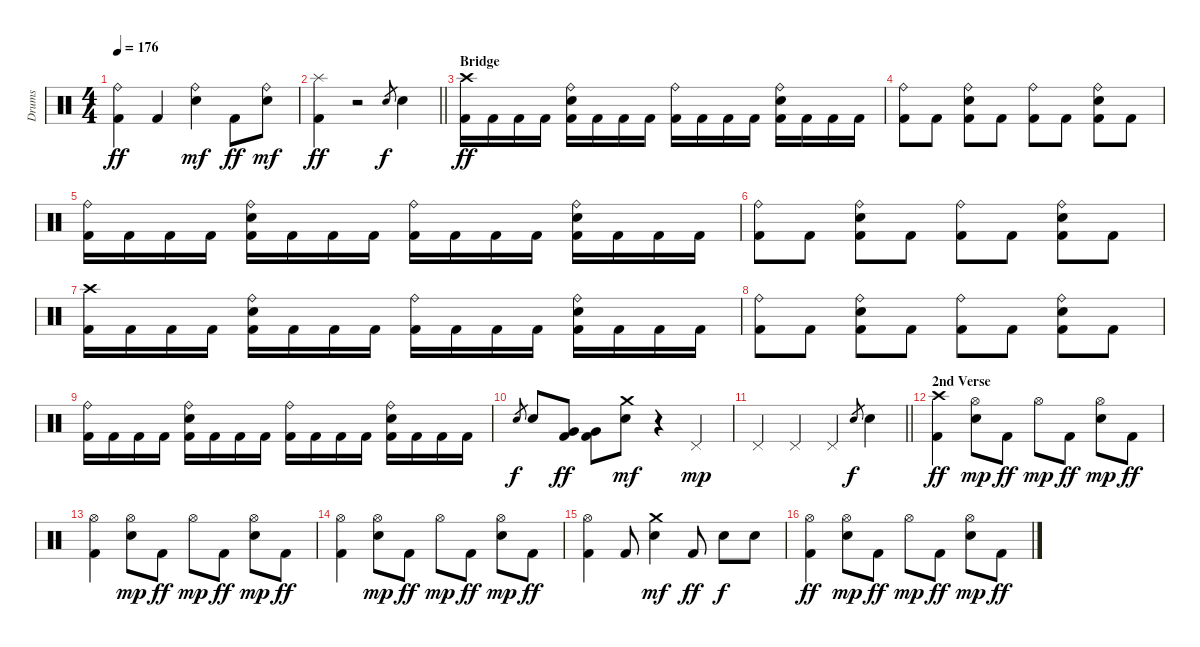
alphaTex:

\track ("Drums" "Drums") {instrument percussion}
\staff {score}
\articulation defaults
\ts (4 4)
\tempo 176
\clef neutral
\ks c
("Ride (bell)" "Kick (hit) 2").4{dy ff} "Kick (hit) 2".4 ("Ride (bell)" "Electric Snare (hit)").4{dy mf} "Kick (hit) 2".8{dy ff} ("Ride (bell)" "Electric Snare (hit)").8{dy mf} |
\barLineRight lightlight
("Splash (hit)" "Kick (hit) 2").4{dy ff} r.2 "Electric Snare (hit)".8{gr dy f} "Electric Snare (hit)".4 |
\section ("" "Bridge")
("Crash high (hit)" "Kick (hit) 2").16{dy ff} "Kick (hit) 2".16 "Kick (hit) 2".16 "Kick (hit) 2".16 ("Ride (bell)" "Electric Snare (hit)" "Kick (hit) 2").16 "Kick (hit) 2".16 "Kick (hit) 2".16 "Kick (hit) 2".16 ("Ride (bell)" "Kick (hit) 2").16 "Kick (hit) 2".16 "Kick (hit) 2".16 "Kick (hit) 2".16 ("Ride (bell)" "Electric Snare (hit)" "Kick (hit) 2").16 "Kick (hit) 2".16 "Kick (hit) 2".16 "Kick (hit) 2".16 |
("Ride (bell)" "Kick (hit) 2").8 "Kick (hit) 2".8 ("Ride (bell)" "Electric Snare (hit)" "Kick (hit) 2").8 "Kick (hit) 2".8 ("Ride (bell)" "Kick (hit) 2").8 "Kick (hit) 2".8 ("Ride (bell)" "Electric Snare (hit)" "Kick (hit) 2").8 "Kick (hit) 2".8 |
("Ride (bell)" "Kick (hit) 2").16 "Kick (hit) 2".16 "Kick (hit) 2".16 "Kick (hit) 2".16 ("Ride (bell)" "Electric Snare (hit)" "Kick (hit) 2").16 "Kick (hit) 2".16 "Kick (hit) 2".16 "Kick (hit) 2".16 ("Ride (bell)" "Kick (hit) 2").16 "Kick (hit) 2".16 "Kick (hit) 2".16 "Kick (hit) 2".16 ("Ride (bell)" "Electric Snare (hit)" "Kick (hit) 2").16 "Kick (hit) 2".16 "Kick (hit) 2".16 "Kick (hit) 2".16 |
("Ride (bell)" "Kick (hit) 2").8 "Kick (hit) 2".8 ("Ride (bell)" "Electric Snare (hit)" "Kick (hit) 2").8 "Kick (hit) 2".8 ("Ride (bell)" "Kick (hit) 2").8 "Kick (hit) 2".8 ("Ride (bell)" "Electric Snare (hit)" "Kick (hit) 2").8 "Kick (hit) 2".8 |
("Crash high (hit)" "Kick (hit) 2").16 "Kick (hit) 2".16 "Kick (hit) 2".16 "Kick (hit) 2".16 ("Ride (bell)" "Electric Snare (hit)" "Kick (hit) 2").16 "Kick (hit) 2".16 "Kick (hit) 2".16 "Kick (hit) 2".16 ("Ride (bell)" "Kick (hit) 2").16 "Kick (hit) 2".16 "Kick (hit) 2".16 "Kick (hit) 2".16 ("Ride (bell)" "Electric Snare (hit)" "Kick (hit) 2").16 "Kick (hit) 2".16 "Kick (hit) 2".16 "Kick (hit) 2".16 |
("Ride (bell)" "Kick (hit) 2").8 "Kick (hit) 2".8 ("Ride (bell)" "Electric Snare (hit)" "Kick (hit) 2").8 "Kick (hit) 2".8 ("Ride (bell)" "Kick (hit) 2").8 "Kick (hit) 2".8 ("Ride (bell)" "Electric Snare (hit)" "Kick (hit) 2").8 "Kick (hit) 2".8 |
("Ride (bell)" "Kick (hit) 2").16 "Kick (hit) 2".16 "Kick (hit) 2".16 "Kick (hit) 2".16 ("Ride (bell)" "Electric Snare (hit)" "Kick (hit) 2").16 "Kick (hit) 2".16 "Kick (hit) 2".16 "Kick (hit) 2".16 ("Ride (bell)" "Kick (hit) 2").16 "Kick (hit) 2".16 "Kick (hit) 2".16 "Kick (hit) 2".16 ("Ride (bell)" "Electric Snare (hit)" "Kick (hit) 2").16 "Kick (hit) 2".16 "Kick (hit) 2".16 "Kick (hit) 2".16 |
"Electric Snare (hit)".8{gr dy f} "Electric Snare (hit)".8 ("Very Low Tom (hit)" "Kick (hit) 2").8{dy ff} ("Very Low Tom (hit)" "Kick (hit) 2").8 ("Crash medium (hit)" "Electric Snare (hit)").8{dy mf} r.4 "Pedal Hi-Hat (hit)".4{dy mp} |
\barLineRight lightlight "Pedal Hi-Hat (hit)".4 "Pedal Hi-Hat (hit)".4 "Pedal Hi-Hat (hit)".4 "Electric Snare (hit)".8{gr dy f} "Electric Snare (hit)".4
|
\section ("" "2nd Verse")
("Crash high (hit)" "Kick (hit) 2").4{dy ff} ("Hi-Hat (open)" "Electric Snare (hit)").8{dy mp} "Kick (hit) 2".8{dy ff} "Hi-Hat (open)".8{dy mp} "Kick (hit) 2".8{dy ff} ("Hi-Hat (open)" "Electric Snare (hit)").8{dy mp} "Kick (hit) 2".8{dy ff} |
("Hi-Hat (open)" "Kick (hit) 2").4 ("Hi-Hat (open)" "Electric Snare (hit)").8{dy mp} "Kick (hit) 2".8{dy ff} "Hi-Hat (open)".8{dy mp} "Kick (hit) 2".8{dy ff} ("Hi-Hat (open)" "Electric Snare (hit)").8{dy mp} "Kick (hit) 2".8{dy ff} |
("Hi-Hat (open)" "Kick (hit) 2").4 ("Hi-Hat (open)" "Electric Snare (hit)").8{dy mp} "Kick (hit) 2".8{dy ff} "Hi-Hat (open)".8{dy mp} "Kick (hit) 2".8{dy ff} ("Hi-Hat (open)" "Electric Snare (hit)").8{dy mp} "Kick (hit) 2".8{dy ff} |
("Hi-Hat (open)" "Kick (hit) 2").4 "Kick (hit) 2".8 ("Crash medium (hit)" "Electric Snare (hit)").4{dy mf} "Kick (hit) 2".8{dy ff} "Electric Snare (hit)".8{dy f} "Electric Snare (hit)".8 |
("Hi-Hat (open)" "Kick (hit) 2").4{dy ff} ("Hi-Hat (open)" "Electric Snare (hit)").8{dy mp} "Kick (hit) 2".8{dy ff} "Hi-Hat (open)".8{dy mp} "Kick (hit) 2".8{dy ff} ("Hi-Hat (open)" "Electric Snare (hit)").8{dy mp} "Kick (hit) 2".8{dy ff}
